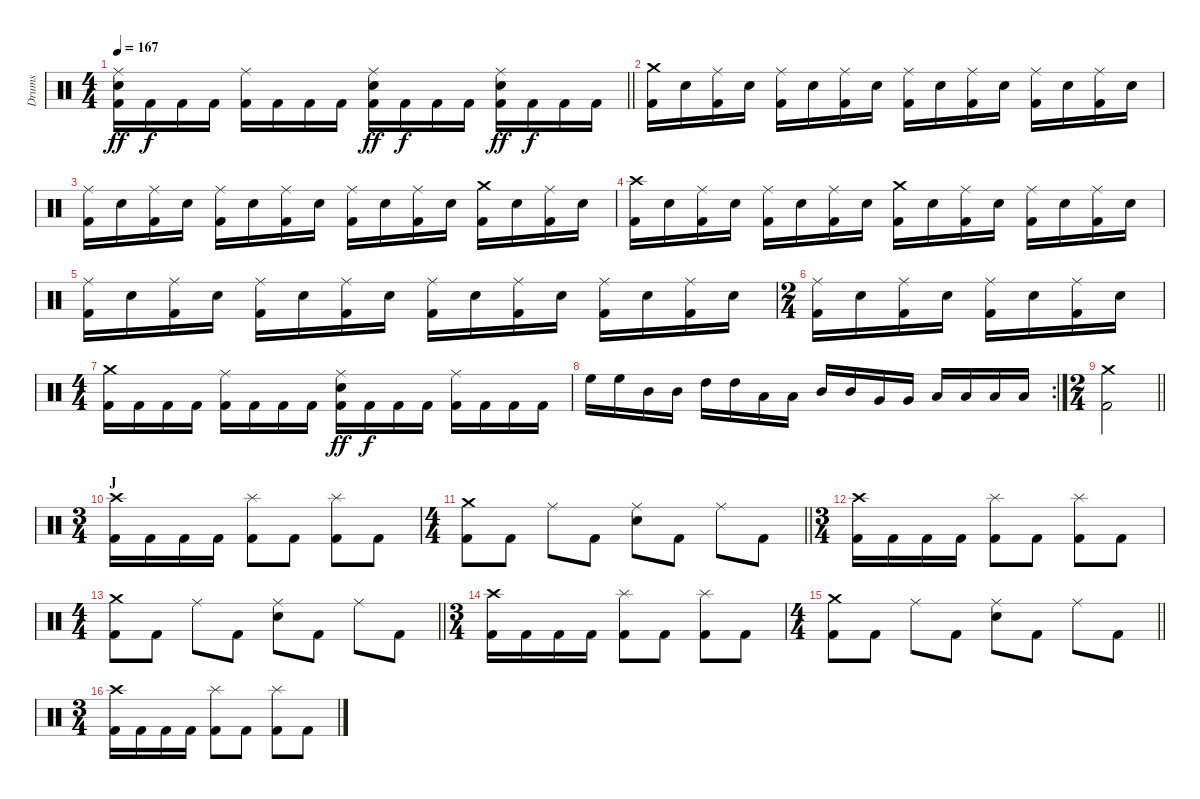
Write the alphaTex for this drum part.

\track ("Drums" "Drums") {instrument percussion}
\staff {score}
\articulation defaults
\ts (4 4)
\tempo 167
\clef neutral
\barLineRight lightlight
\ks c
("Ride (middle)" "Electric Snare (hit)" "Kick (hit) 2").16{dy ff} "Kick (hit) 2".16{dy f} "Kick (hit) 2".16 "Kick (hit) 2".16 ("Ride (middle)" "Kick (hit) 2").16 "Kick (hit) 2".16 "Kick (hit) 2".16 "Kick (hit) 2".16 ("Ride (middle)" "Electric Snare (hit)" "Kick (hit) 2").16{dy ff} "Kick (hit) 2".16{dy f} "Kick (hit) 2".16 "Kick (hit) 2".16 ("Ride (middle)" "Electric Snare (hit)" "Kick (hit) 2").16{dy ff} "Kick (hit) 2".16{dy f} "Kick (hit) 2".16 "Kick (hit) 2".16 |
\section ("" "")
("Crash medium (hit)" "Kick (hit) 2").16 "Electric Snare (hit)".16 ("Ride (middle)" "Kick (hit) 2").16 "Electric Snare (hit)".16 ("Ride (middle)" "Kick (hit) 2").16 "Electric Snare (hit)".16 ("Ride (middle)" "Kick (hit) 2").16 "Electric Snare (hit)".16 ("Ride (middle)" "Kick (hit) 2").16 "Electric Snare (hit)".16 ("Ride (middle)" "Kick (hit) 2").16 "Electric Snare (hit)".16 ("Ride (middle)" "Kick (hit) 2").16 "Electric Snare (hit)".16 ("Ride (middle)" "Kick (hit) 2").16 "Electric Snare (hit)".16 |
("Ride (middle)" "Kick (hit) 2").16 "Electric Snare (hit)".16 ("Ride (middle)" "Kick (hit) 2").16 "Electric Snare (hit)".16 ("Ride (middle)" "Kick (hit) 2").16 "Electric Snare (hit)".16 ("Ride (middle)" "Kick (hit) 2").16 "Electric Snare (hit)".16 ("Ride (middle)" "Kick (hit) 2").16 "Electric Snare (hit)".16 ("Ride (middle)" "Kick (hit) 2").16 "Electric Snare (hit)".16 ("Crash medium (hit)" "Kick (hit) 2").16 "Electric Snare (hit)".16 ("Ride (middle)" "Kick (hit) 2").16 "Electric Snare (hit)".16 |
("Crash high (hit)" "Kick (hit) 2").16 "Electric Snare (hit)".16 ("Ride (middle)" "Kick (hit) 2").16 "Electric Snare (hit)".16 ("Ride (middle)" "Kick (hit) 2").16 "Electric Snare (hit)".16 ("Ride (middle)" "Kick (hit) 2").16 "Electric Snare (hit)".16 ("Crash medium (hit)" "Kick (hit) 2").16 "Electric Snare (hit)".16 ("Ride (middle)" "Kick (hit) 2").16 "Electric Snare (hit)".16 ("Ride (middle)" "Kick (hit) 2").16 "Electric Snare (hit)".16 ("Ride (middle)" "Kick (hit) 2").16 "Electric Snare (hit)".16 |
("Ride (middle)" "Kick (hit) 2").16 "Electric Snare (hit)".16 ("Ride (middle)" "Kick (hit) 2").16 "Electric Snare (hit)".16 ("Ride (middle)" "Kick (hit) 2").16 "Electric Snare (hit)".16 ("Ride (middle)" "Kick (hit) 2").16 "Electric Snare (hit)".16 ("Ride (middle)" "Kick (hit) 2").16 "Electric Snare (hit)".16 ("Ride (middle)" "Kick (hit) 2").16 "Electric Snare (hit)".16 ("Ride (middle)" "Kick (hit) 2").16 "Electric Snare (hit)".16 ("Ride (middle)" "Kick (hit) 2").16 "Electric Snare (hit)".16 |
\ts (2 4)
("Ride (middle)" "Kick (hit) 2").16 "Electric Snare (hit)".16 ("Ride (middle)" "Kick (hit) 2").16 "Electric Snare (hit)".16 ("Ride (middle)" "Kick (hit) 2").16 "Electric Snare (hit)".16 ("Ride (middle)" "Kick (hit) 2").16 "Electric Snare (hit)".16 |
\ts (4 4)
("Crash medium (hit)" "Kick (hit) 2").16 "Kick (hit) 2".16 "Kick (hit) 2".16 "Kick (hit) 2".16 ("Ride (middle)" "Kick (hit) 2").16 "Kick (hit) 2".16 "Kick (hit) 2".16 "Kick (hit) 2".16 ("Ride (middle)" "Electric Snare (hit)" "Kick (hit) 2").16{dy ff} "Kick (hit) 2".16{dy f} "Kick (hit) 2".16 "Kick (hit) 2".16 ("Ride (middle)" "Kick (hit) 2").16 "Kick (hit) 2".16 "Kick (hit) 2".16 "Kick (hit) 2".16 |
\rc 2 "High Floor Tom (hit)".16 "High Floor Tom (hit)".16 "Mid Tom (hit)".16 "Mid Tom (hit)".16 "High Tom (hit)".16 "High Tom (hit)".16 "Low Tom (hit)".16 "Low Tom (hit)".16 "Mid Tom (hit)".16 "Mid Tom (hit)".16 "Very Low Tom (hit)".16 "Very Low Tom (hit)".16 "Low Tom (hit)".16 "Low Tom (hit)".16 "Low Floor Tom (hit)".16 "Low Floor Tom (hit)".16
|
\ts (2 4)
\barLineRight lightlight
("Crash medium (hit)" "Kick (hit) 2").2 |
\ts (3 4)
\section ("" "J")
("Crash high (hit)" "Kick (hit) 2").16 "Kick (hit) 2".16 "Kick (hit) 2".16 "Kick (hit) 2".16 ("Splash (hit)" "Kick (hit) 2").8 "Kick (hit) 2".8 ("Splash (hit)" "Kick (hit) 2").8 "Kick (hit) 2".8 |
\ts (4 4)
\barLineRight lightlight
("Crash medium (hit)" "Kick (hit) 2").8 "Kick (hit) 2".8 "Ride (middle)".8 "Kick (hit) 2".8 ("Ride (middle)" "Electric Snare (hit)").8 "Kick (hit) 2".8 "Ride (middle)".8 "Kick (hit) 2".8 |
\ts (3 4)
\section ("" "")
("Crash high (hit)" "Kick (hit) 2").16 "Kick (hit) 2".16 "Kick (hit) 2".16 "Kick (hit) 2".16 ("Splash (hit)" "Kick (hit) 2").8 "Kick (hit) 2".8 ("Splash (hit)" "Kick (hit) 2").8 "Kick (hit) 2".8 |
\ts (4 4)
\barLineRight lightlight
("Crash medium (hit)" "Kick (hit) 2").8 "Kick (hit) 2".8 "Ride (middle)".8 "Kick (hit) 2".8 ("Ride (middle)" "Electric Snare (hit)").8 "Kick (hit) 2".8 "Ride (middle)".8 "Kick (hit) 2".8 |
\ts (3 4)
\section ("" "")
("Crash high (hit)" "Kick (hit) 2").16 "Kick (hit) 2".16 "Kick (hit) 2".16 "Kick (hit) 2".16 ("Splash (hit)" "Kick (hit) 2").8 "Kick (hit) 2".8 ("Splash (hit)" "Kick (hit) 2").8 "Kick (hit) 2".8 |
\ts (4 4)
\barLineRight lightlight
("Crash medium (hit)" "Kick (hit) 2").8 "Kick (hit) 2".8 "Ride (middle)".8 "Kick (hit) 2".8 ("Ride (middle)" "Electric Snare (hit)").8 "Kick (hit) 2".8 "Ride (middle)".8 "Kick (hit) 2".8 |
\ts (3 4)
\section ("" "")
("Crash high (hit)" "Kick (hit) 2").16 "Kick (hit) 2".16 "Kick (hit) 2".16 "Kick (hit) 2".16 ("Splash (hit)" "Kick (hit) 2").8 "Kick (hit) 2".8 ("Splash (hit)" "Kick (hit) 2").8 "Kick (hit) 2".8
